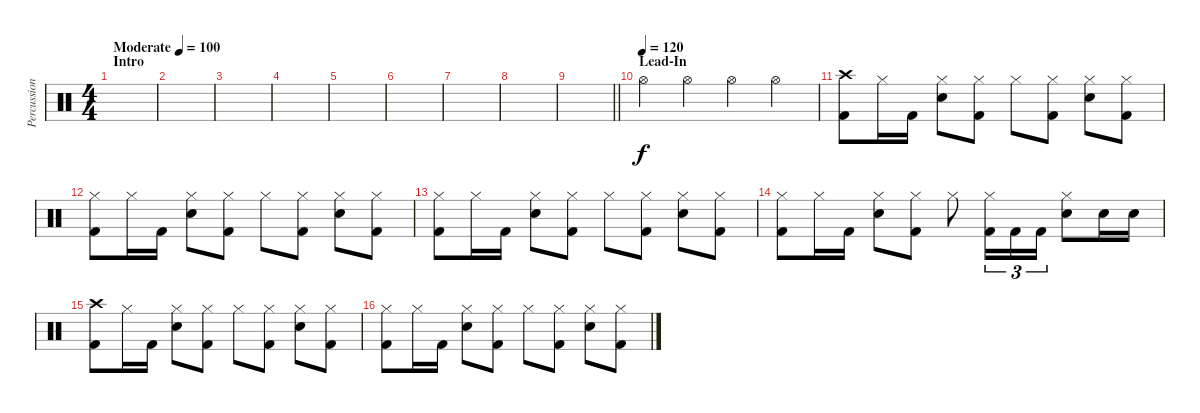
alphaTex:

\track ("Percussion" "Percussion") {instrument percussion}
\staff {score}
\articulation defaults
\ts (4 4)
\section ("" "Intro")
\tempo (100 "Moderate")
\clef neutral
\ks c
|
|
|
|
|
|
|
|
\barLineRight lightlight
|
\section ("" "Lead-In")
\tempo (120)
"Hi-Hat (open)".4 "Hi-Hat (open)".4 "Hi-Hat (open)".4 "Hi-Hat (open)".4 |
("Crash high (hit)" "Kick (hit) 2").8 "Hi-Hat (closed)".16 "Kick (hit) 2".16 ("Hi-Hat (closed)" "Snare (hit) 2").8 ("Hi-Hat (closed)" "Kick (hit) 2").8 "Hi-Hat (closed)".8 ("Hi-Hat (closed)" "Kick (hit) 2").8 ("Hi-Hat (closed)" "Snare (hit) 2").8 ("Hi-Hat (closed)" "Kick (hit) 2").8 |
("Hi-Hat (closed)" "Kick (hit) 2").8 "Hi-Hat (closed)".16 "Kick (hit) 2".16 ("Hi-Hat (closed)" "Snare (hit) 2").8 ("Hi-Hat (closed)" "Kick (hit) 2").8 "Hi-Hat (closed)".8 ("Hi-Hat (closed)" "Kick (hit) 2").8 ("Hi-Hat (closed)" "Snare (hit) 2").8 ("Hi-Hat (closed)" "Kick (hit) 2").8 |
("Hi-Hat (closed)" "Kick (hit) 2").8 "Hi-Hat (closed)".16 "Kick (hit) 2".16 ("Hi-Hat (closed)" "Snare (hit) 2").8 ("Hi-Hat (closed)" "Kick (hit) 2").8 "Hi-Hat (closed)".8 ("Hi-Hat (closed)" "Kick (hit) 2").8 ("Hi-Hat (closed)" "Snare (hit) 2").8 ("Hi-Hat (closed)" "Kick (hit) 2").8 |
("Hi-Hat (closed)" "Kick (hit) 2").8 "Hi-Hat (closed)".16 "Kick (hit) 2".16 ("Hi-Hat (closed)" "Snare (hit) 2").8 ("Hi-Hat (closed)" "Kick (hit) 2").8 "Hi-Hat (closed)".8 ("Hi-Hat (closed)" "Kick (hit) 2").16{tu (3 2)} "Kick (hit) 2".16{tu (3 2)} "Kick (hit) 2".16{tu (3 2)} ("Hi-Hat (closed)" "Snare (hit) 2").8 "Snare (hit) 2".16 "Snare (hit) 2".16 |
("Crash high (hit)" "Kick (hit) 2").8 "Hi-Hat (closed)".16 "Kick (hit) 2".16 ("Hi-Hat (closed)" "Snare (hit) 2").8 ("Hi-Hat (closed)" "Kick (hit) 2").8 "Hi-Hat (closed)".8 ("Hi-Hat (closed)" "Kick (hit) 2").8 ("Hi-Hat (closed)" "Snare (hit) 2").8 ("Hi-Hat (closed)" "Kick (hit) 2").8 |
("Hi-Hat (closed)" "Kick (hit) 2").8 "Hi-Hat (closed)".16 "Kick (hit) 2".16 ("Hi-Hat (closed)" "Snare (hit) 2").8 ("Hi-Hat (closed)" "Kick (hit) 2").8 "Hi-Hat (closed)".8 ("Hi-Hat (closed)" "Kick (hit) 2").8 ("Hi-Hat (closed)" "Snare (hit) 2").8 ("Hi-Hat (closed)" "Kick (hit) 2").8
